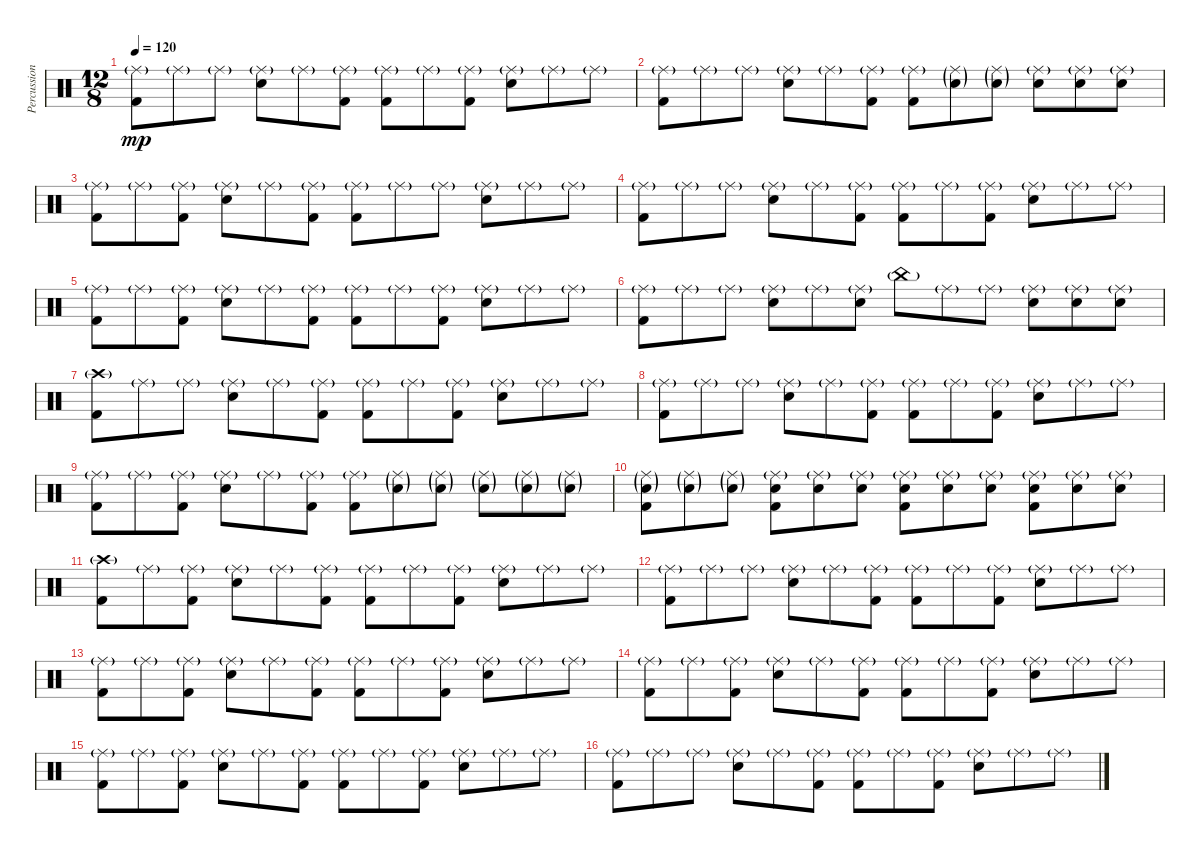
\track ("Percussion" "Percussion") {instrument percussion}
\staff {score}
\articulation defaults
\ts (12 8)
\tempo 120
\clef neutral
\ks c
("Ride (middle)"{g} "Kick (hit) 2").8{dy mp} "Ride (middle)"{g}.8 "Ride (middle)"{g}.8 ("Ride (middle)"{g} "Electric Snare (hit)").8 "Ride (middle)"{g}.8 ("Ride (middle)"{g} "Kick (hit) 2").8 ("Ride (middle)"{g} "Kick (hit) 2").8 "Ride (middle)"{g}.8 ("Ride (middle)"{g} "Kick (hit) 2").8 ("Ride (middle)"{g} "Electric Snare (hit)").8 "Ride (middle)"{g}.8 "Ride (middle)"{g}.8 |
("Ride (middle)"{g} "Kick (hit) 2").8 "Ride (middle)"{g}.8 "Ride (middle)"{g}.8 ("Ride (middle)"{g} "Electric Snare (hit)").8 "Ride (middle)"{g}.8 ("Ride (middle)"{g} "Kick (hit) 2").8 ("Ride (middle)"{g} "Kick (hit) 2").8 ("Ride (middle)"{g} "Electric Snare (hit)"{g}).8 ("Ride (middle)"{g} "Electric Snare (hit)"{g}).8 ("Ride (middle)"{g} "Electric Snare (hit)").8 ("Ride (middle)"{g} "Electric Snare (hit)").8 ("Ride (middle)"{g} "Electric Snare (hit)").8 |
("Ride (middle)"{g} "Kick (hit) 2").8 "Ride (middle)"{g}.8 ("Ride (middle)"{g} "Kick (hit) 2").8 ("Ride (middle)"{g} "Electric Snare (hit)").8 "Ride (middle)"{g}.8 ("Ride (middle)"{g} "Kick (hit) 2").8 ("Ride (middle)"{g} "Kick (hit) 2").8 "Ride (middle)"{g}.8 "Ride (middle)"{g}.8 ("Ride (middle)"{g} "Electric Snare (hit)").8 "Ride (middle)"{g}.8 "Ride (middle)"{g}.8 |
("Ride (middle)"{g} "Kick (hit) 2").8 "Ride (middle)"{g}.8 "Ride (middle)"{g}.8 ("Ride (middle)"{g} "Electric Snare (hit)").8 "Ride (middle)"{g}.8 ("Ride (middle)"{g} "Kick (hit) 2").8 ("Ride (middle)"{g} "Kick (hit) 2").8 "Ride (middle)"{g}.8 ("Ride (middle)"{g} "Kick (hit) 2").8 ("Ride (middle)"{g} "Electric Snare (hit)").8 "Ride (middle)"{g}.8 "Ride (middle)"{g}.8 |
("Ride (middle)"{g} "Kick (hit) 2").8 "Ride (middle)"{g}.8 ("Ride (middle)"{g} "Kick (hit) 2").8 ("Ride (middle)"{g} "Electric Snare (hit)").8 "Ride (middle)"{g}.8 ("Ride (middle)"{g} "Kick (hit) 2").8 ("Ride (middle)"{g} "Kick (hit) 2").8 "Ride (middle)"{g}.8 ("Ride (middle)"{g} "Kick (hit) 2").8 ("Ride (middle)"{g} "Electric Snare (hit)").8 "Ride (middle)"{g}.8 "Ride (middle)"{g}.8 |
("Ride (middle)"{g} "Kick (hit) 2").8 "Ride (middle)"{g}.8 "Ride (middle)"{g}.8 ("Ride (middle)"{g} "Electric Snare (hit)").8 "Ride (middle)"{g}.8 ("Ride (middle)"{g} "Electric Snare (hit)").8 "China (hit)"{g}.8 "Ride (middle)"{g}.8 "Ride (middle)"{g}.8 ("Ride (middle)"{g} "Electric Snare (hit)").8 ("Ride (middle)"{g} "Electric Snare (hit)").8 ("Ride (middle)"{g} "Electric Snare (hit)").8 |
("Crash high (hit)"{g} "Kick (hit) 2").8 "Ride (middle)"{g}.8 "Ride (middle)"{g}.8 ("Ride (middle)"{g} "Electric Snare (hit)").8 "Ride (middle)"{g}.8 ("Ride (middle)"{g} "Kick (hit) 2").8 ("Ride (middle)"{g} "Kick (hit) 2").8 "Ride (middle)"{g}.8 ("Ride (middle)"{g} "Kick (hit) 2").8 ("Ride (middle)"{g} "Electric Snare (hit)").8 "Ride (middle)"{g}.8 "Ride (middle)"{g}.8 |
("Ride (middle)"{g} "Kick (hit) 2").8 "Ride (middle)"{g}.8 "Ride (middle)"{g}.8 ("Ride (middle)"{g} "Electric Snare (hit)").8 "Ride (middle)"{g}.8 ("Ride (middle)"{g} "Kick (hit) 2").8 ("Ride (middle)"{g} "Kick (hit) 2").8 "Ride (middle)"{g}.8 ("Ride (middle)"{g} "Kick (hit) 2").8 ("Ride (middle)"{g} "Electric Snare (hit)").8 "Ride (middle)"{g}.8 "Ride (middle)"{g}.8 |
("Ride (middle)"{g} "Kick (hit) 2").8 "Ride (middle)"{g}.8 ("Ride (middle)"{g} "Kick (hit) 2").8 ("Ride (middle)"{g} "Electric Snare (hit)").8 "Ride (middle)"{g}.8 ("Ride (middle)"{g} "Kick (hit) 2").8 ("Ride (middle)"{g} "Kick (hit) 2").8 ("Ride (middle)"{g} "Electric Snare (hit)"{g}).8 ("Ride (middle)"{g} "Electric Snare (hit)"{g}).8 ("Ride (middle)"{g} "Electric Snare (hit)"{g}).8 ("Ride (middle)"{g} "Electric Snare (hit)"{g}).8 ("Ride (middle)"{g} "Electric Snare (hit)"{g}).8 |
("Ride (middle)"{g} "Electric Snare (hit)"{g} "Kick (hit) 2").8 ("Ride (middle)"{g} "Electric Snare (hit)"{g}).8 ("Ride (middle)"{g} "Electric Snare (hit)"{g}).8 ("Ride (middle)"{g} "Electric Snare (hit)" "Kick (hit) 2").8 ("Ride (middle)"{g} "Electric Snare (hit)").8 ("Ride (middle)"{g} "Electric Snare (hit)").8 ("Ride (middle)"{g} "Electric Snare (hit)" "Kick (hit) 2").8 ("Ride (middle)"{g} "Electric Snare (hit)").8 ("Ride (middle)"{g} "Electric Snare (hit)").8 ("Ride (middle)"{g} "Electric Snare (hit)" "Kick (hit) 2").8 ("Ride (middle)"{g} "Electric Snare (hit)").8 ("Ride (middle)"{g} "Electric Snare (hit)").8 |
("Crash high (hit)"{g} "Kick (hit) 2").8 "Ride (middle)"{g}.8 ("Ride (middle)"{g} "Kick (hit) 2").8 ("Ride (middle)"{g} "Electric Snare (hit)").8 "Ride (middle)"{g}.8 ("Ride (middle)"{g} "Kick (hit) 2").8 ("Ride (middle)"{g} "Kick (hit) 2").8 "Ride (middle)"{g}.8 ("Ride (middle)"{g} "Kick (hit) 2").8 ("Ride (middle)"{g} "Electric Snare (hit)").8 "Ride (middle)"{g}.8 "Ride (middle)"{g}.8 |
("Ride (middle)"{g} "Kick (hit) 2").8 "Ride (middle)"{g}.8 "Ride (middle)"{g}.8 ("Ride (middle)"{g} "Electric Snare (hit)").8 "Ride (middle)"{g}.8 ("Ride (middle)"{g} "Kick (hit) 2").8 ("Ride (middle)"{g} "Kick (hit) 2").8 "Ride (middle)"{g}.8 ("Ride (middle)"{g} "Kick (hit) 2").8 ("Ride (middle)"{g} "Electric Snare (hit)").8 "Ride (middle)"{g}.8 "Ride (middle)"{g}.8 |
("Ride (middle)"{g} "Kick (hit) 2").8 "Ride (middle)"{g}.8 ("Ride (middle)"{g} "Kick (hit) 2").8 ("Ride (middle)"{g} "Electric Snare (hit)").8 "Ride (middle)"{g}.8 ("Ride (middle)"{g} "Kick (hit) 2").8 ("Ride (middle)"{g} "Kick (hit) 2").8 "Ride (middle)"{g}.8 ("Ride (middle)"{g} "Kick (hit) 2").8 ("Ride (middle)"{g} "Electric Snare (hit)").8 "Ride (middle)"{g}.8 "Ride (middle)"{g}.8 |
("Ride (middle)"{g} "Kick (hit) 2").8 "Ride (middle)"{g}.8 ("Ride (middle)"{g} "Kick (hit) 2").8 ("Ride (middle)"{g} "Electric Snare (hit)").8 "Ride (middle)"{g}.8 ("Ride (middle)"{g} "Kick (hit) 2").8 ("Ride (middle)"{g} "Kick (hit) 2").8 "Ride (middle)"{g}.8 ("Ride (middle)"{g} "Kick (hit) 2").8 ("Ride (middle)"{g} "Electric Snare (hit)").8 "Ride (middle)"{g}.8 "Ride (middle)"{g}.8 |
("Ride (middle)"{g} "Kick (hit) 2").8 "Ride (middle)"{g}.8 ("Ride (middle)"{g} "Kick (hit) 2").8 ("Ride (middle)"{g} "Electric Snare (hit)").8 "Ride (middle)"{g}.8 ("Ride (middle)"{g} "Kick (hit) 2").8 ("Ride (middle)"{g} "Kick (hit) 2").8 "Ride (middle)"{g}.8 ("Ride (middle)"{g} "Kick (hit) 2").8 ("Ride (middle)"{g} "Electric Snare (hit)").8 "Ride (middle)"{g}.8 "Ride (middle)"{g}.8 |
("Ride (middle)"{g} "Kick (hit) 2").8 "Ride (middle)"{g}.8 "Ride (middle)"{g}.8 ("Ride (middle)"{g} "Electric Snare (hit)").8 "Ride (middle)"{g}.8 ("Ride (middle)"{g} "Kick (hit) 2").8 ("Ride (middle)"{g} "Kick (hit) 2").8 "Ride (middle)"{g}.8 ("Ride (middle)"{g} "Kick (hit) 2").8 ("Ride (middle)"{g} "Electric Snare (hit)").8 "Ride (middle)"{g}.8 "Ride (middle)"{g}.8
